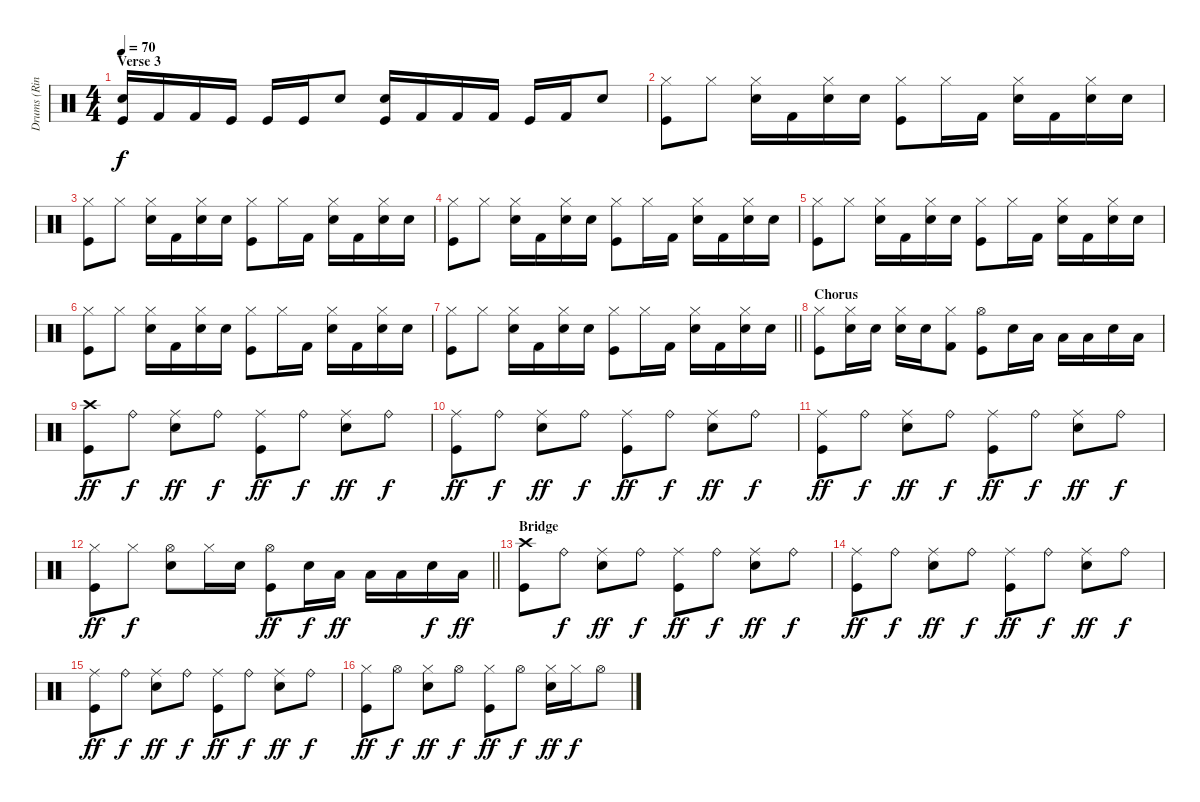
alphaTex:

\track ("Drums (Ringo Starr)" "Drums (Rin") {instrument percussion}
\staff {score}
\articulation defaults
\ts (4 4)
\section ("" "Verse 3")
\tempo 70
\clef neutral
\ks c
("Electric Snare (hit)" "Kick (hit)").16{dy f} "Kick (hit) 2".16 "Kick (hit) 2".16 "Kick (hit)".16 "Kick (hit)".16 "Kick (hit)".16 "Snare (hit) 2".8 ("Electric Snare (hit)" "Kick (hit)").16 "Kick (hit) 2".16 "Kick (hit) 2".16 "Kick (hit) 2".16 "Kick (hit)".16 "Kick (hit) 2".16 "Snare (hit) 2".8 |
("Hi-Hat (closed)" "Kick (hit)").8 "Hi-Hat (closed)".8 ("Hi-Hat (closed)" "Electric Snare (hit)").16 "Kick (hit) 2".16 ("Hi-Hat (closed)" "Snare (hit) 2").16 "Snare (hit) 2".16 ("Hi-Hat (closed)" "Kick (hit)").8 "Hi-Hat (closed)".16 "Kick (hit) 2".16 ("Hi-Hat (closed)" "Electric Snare (hit)").16 "Kick (hit) 2".16 ("Hi-Hat (closed)" "Snare (hit) 2").16 "Snare (hit) 2".16 |
("Hi-Hat (closed)" "Kick (hit)").8 "Hi-Hat (closed)".8 ("Hi-Hat (closed)" "Electric Snare (hit)").16 "Kick (hit) 2".16 ("Hi-Hat (closed)" "Snare (hit) 2").16 "Snare (hit) 2".16 ("Hi-Hat (closed)" "Kick (hit)").8 "Hi-Hat (closed)".16 "Kick (hit) 2".16 ("Hi-Hat (closed)" "Electric Snare (hit)").16 "Kick (hit) 2".16 ("Hi-Hat (closed)" "Snare (hit) 2").16 "Snare (hit) 2".16 |
("Hi-Hat (closed)" "Kick (hit)").8 "Hi-Hat (closed)".8 ("Hi-Hat (closed)" "Electric Snare (hit)").16 "Kick (hit) 2".16 ("Hi-Hat (closed)" "Snare (hit) 2").16 "Snare (hit) 2".16 ("Hi-Hat (closed)" "Kick (hit)").8 "Hi-Hat (closed)".16 "Kick (hit) 2".16 ("Hi-Hat (closed)" "Electric Snare (hit)").16 "Kick (hit) 2".16 ("Hi-Hat (closed)" "Snare (hit) 2").16 "Snare (hit) 2".16 |
("Hi-Hat (closed)" "Kick (hit)").8 "Hi-Hat (closed)".8 ("Hi-Hat (closed)" "Electric Snare (hit)").16 "Kick (hit) 2".16 ("Hi-Hat (closed)" "Snare (hit) 2").16 "Snare (hit) 2".16 ("Hi-Hat (closed)" "Kick (hit)").8 "Hi-Hat (closed)".16 "Kick (hit) 2".16 ("Hi-Hat (closed)" "Electric Snare (hit)").16 "Kick (hit) 2".16 ("Hi-Hat (closed)" "Snare (hit) 2").16 "Snare (hit) 2".16 |
("Hi-Hat (closed)" "Kick (hit)").8 "Hi-Hat (closed)".8 ("Hi-Hat (closed)" "Electric Snare (hit)").16 "Kick (hit) 2".16 ("Hi-Hat (closed)" "Snare (hit) 2").16 "Snare (hit) 2".16 ("Hi-Hat (closed)" "Kick (hit)").8 "Hi-Hat (closed)".16 "Kick (hit) 2".16 ("Hi-Hat (closed)" "Electric Snare (hit)").16 "Kick (hit) 2".16 ("Hi-Hat (closed)" "Snare (hit) 2").16 "Snare (hit) 2".16 |
\barLineRight lightlight
("Hi-Hat (closed)" "Kick (hit)").8 "Hi-Hat (closed)".8 ("Hi-Hat (closed)" "Electric Snare (hit)").16 "Kick (hit) 2".16 ("Hi-Hat (closed)" "Snare (hit) 2").16 "Snare (hit) 2".16 ("Hi-Hat (closed)" "Kick (hit)").8 "Hi-Hat (closed)".16 "Kick (hit) 2".16 ("Hi-Hat (closed)" "Electric Snare (hit)").16 "Kick (hit) 2".16 ("Hi-Hat (closed)" "Snare (hit) 2").16 "Snare (hit) 2".16 |
\section ("" "Chorus")
("Hi-Hat (closed)" "Kick (hit)").8 ("Hi-Hat (closed)" "Electric Snare (hit)").16 "Snare (hit) 2".16 ("Hi-Hat (closed)" "Electric Snare (hit)").16 "Snare (hit) 2".16 ("Hi-Hat (closed)" "Kick (hit) 2").8 ("Hi-Hat (open)" "Kick (hit)").8 "Snare (hit) 2".16 "Low Tom (hit)".16 "Low Tom (hit)".16 "Low Tom (hit)".16 "Snare (hit) 2".16 "Low Tom (hit)".16 |
("Crash high (hit)" "Kick (hit)").8{dy ff} "Ride (bell)".8{dy f} ("Ride (middle)" "Snare (hit) 2").8{dy ff} "Ride (bell)".8{dy f} ("Ride (middle)" "Kick (hit)").8{dy ff} "Ride (bell)".8{dy f} ("Ride (middle)" "Snare (hit) 2").8{dy ff} "Ride (bell)".8{dy f} |
("Ride (middle)" "Kick (hit)").8{dy ff} "Ride (bell)".8{dy f} ("Ride (middle)" "Snare (hit) 2").8{dy ff} "Ride (bell)".8{dy f} ("Ride (middle)" "Kick (hit)").8{dy ff} "Ride (bell)".8{dy f} ("Ride (middle)" "Snare (hit) 2").8{dy ff} "Ride (bell)".8{dy f} |
("Ride (middle)" "Kick (hit)").8{dy ff} "Ride (bell)".8{dy f} ("Ride (middle)" "Snare (hit) 2").8{dy ff} "Ride (bell)".8{dy f} ("Ride (middle)" "Kick (hit)").8{dy ff} "Ride (bell)".8{dy f} ("Ride (middle)" "Snare (hit) 2").8{dy ff} "Ride (bell)".8{dy f} |
\barLineRight lightlight
("Hi-Hat (closed)" "Kick (hit)").8{dy ff} "Hi-Hat (closed)".8{dy f} ("Hi-Hat (open)" "Snare (hit) 2").8 "Hi-Hat (closed)".16 "Snare (hit) 2".16 ("Hi-Hat (open)" "Kick (hit)").8{dy ff} "Snare (hit) 2".16{dy f} "Low Tom (hit)".16{dy ff} "Low Tom (hit)".16 "Low Tom (hit)".16 "Snare (hit) 2".16{dy f} "Low Tom (hit)".16{dy ff} |
\section ("" "Bridge")
("Crash high (hit)" "Kick (hit)").8 "Ride (bell)".8{dy f} ("Ride (middle)" "Snare (hit) 2").8{dy ff} "Ride (bell)".8{dy f} ("Ride (middle)" "Kick (hit)").8{dy ff} "Ride (bell)".8{dy f} ("Ride (middle)" "Snare (hit) 2").8{dy ff} "Ride (bell)".8{dy f} |
("Ride (middle)" "Kick (hit)").8{dy ff} "Ride (bell)".8{dy f} ("Ride (middle)" "Snare (hit) 2").8{dy ff} "Ride (bell)".8{dy f} ("Ride (middle)" "Kick (hit)").8{dy ff} "Ride (bell)".8{dy f} ("Ride (middle)" "Snare (hit) 2").8{dy ff} "Ride (bell)".8{dy f} |
("Ride (middle)" "Kick (hit)").8{dy ff} "Ride (bell)".8{dy f} ("Ride (middle)" "Snare (hit) 2").8{dy ff} "Ride (bell)".8{dy f} ("Ride (middle)" "Kick (hit)").8{dy ff} "Ride (bell)".8{dy f} ("Ride (middle)" "Snare (hit) 2").8{dy ff} "Ride (bell)".8{dy f} |
("Hi-Hat (closed)" "Kick (hit)").8{dy ff} "Hi-Hat (open)".8{dy f} ("Hi-Hat (closed)" "Snare (hit) 2").8{dy ff} "Hi-Hat (open)".8{dy f} ("Hi-Hat (closed)" "Kick (hit)").8{dy ff} "Hi-Hat (open)".8{dy f} ("Hi-Hat (closed)" "Snare (hit) 2").16{dy ff} "Hi-Hat (closed)".16{dy f} "Hi-Hat (open)".8
